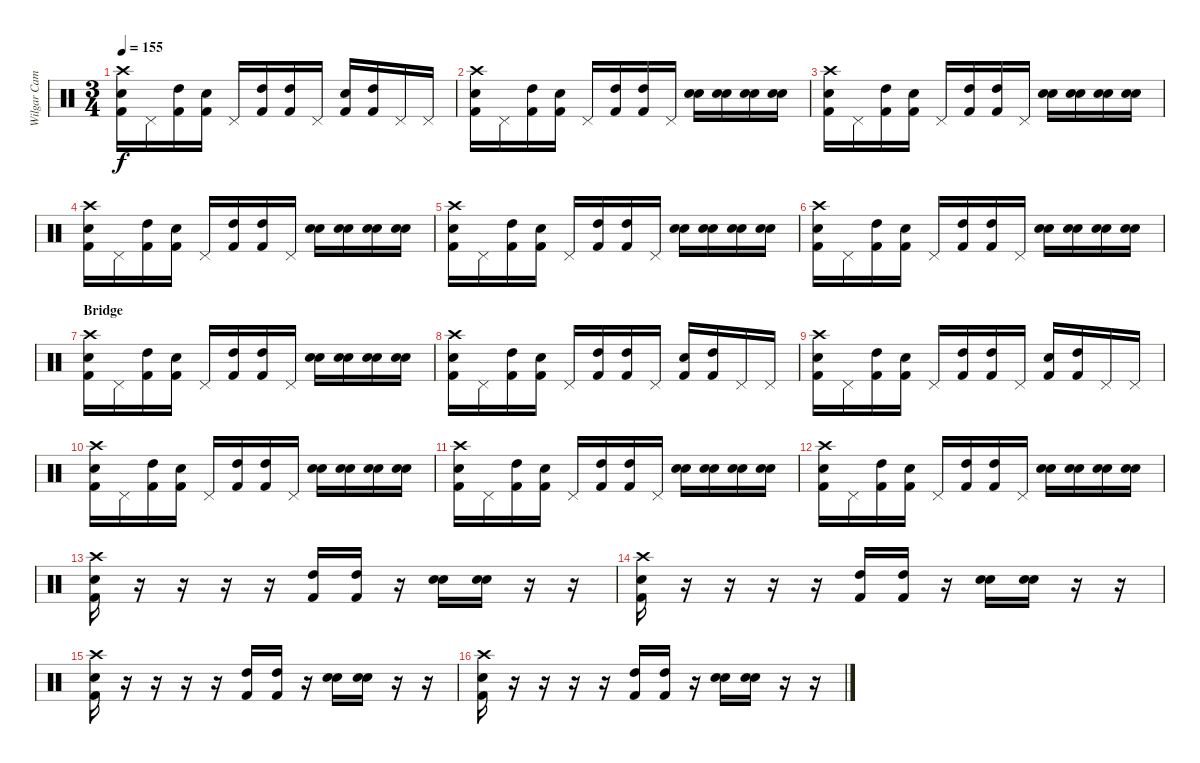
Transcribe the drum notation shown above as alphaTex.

\track ("Wilgar Campbell" "Wilgar Cam") {instrument percussion}
\staff {score}
\articulation defaults
\ts (3 4)
\tempo 155
\clef neutral
\ks c
("Kick (hit) 2" "Snare (hit) 2" "Crash high (hit)").16{dy f} "Pedal Hi-Hat (hit)".16 ("Kick (hit) 2" "High Tom (hit)").16 ("Kick (hit) 2" "Snare (hit) 2").16 "Pedal Hi-Hat (hit)".16 ("High Tom (hit)" "Kick (hit) 2").16 ("High Tom (hit)" "Kick (hit) 2").16 "Pedal Hi-Hat (hit)".16 ("Electric Snare (hit)" "Kick (hit) 2").16 ("High Tom (hit)" "Kick (hit) 2").16 "Pedal Hi-Hat (hit)".16 "Pedal Hi-Hat (hit)".16 |
("Kick (hit) 2" "Snare (hit) 2" "Crash high (hit)").16 "Pedal Hi-Hat (hit)".16 ("Kick (hit) 2" "High Tom (hit)").16 ("Kick (hit) 2" "Snare (hit) 2").16 "Pedal Hi-Hat (hit)".16 ("High Tom (hit)" "Kick (hit) 2").16 ("High Tom (hit)" "Kick (hit) 2").16 "Pedal Hi-Hat (hit)".16 ("Electric Snare (hit)" "Electric Snare (hit)").16 ("Electric Snare (hit)" "Electric Snare (hit)").16 ("Electric Snare (hit)" "Electric Snare (hit)").16 ("Electric Snare (hit)" "Electric Snare (hit)").16 |
("Kick (hit) 2" "Snare (hit) 2" "Crash high (hit)").16 "Pedal Hi-Hat (hit)".16 ("Kick (hit) 2" "High Tom (hit)").16 ("Kick (hit) 2" "Snare (hit) 2").16 "Pedal Hi-Hat (hit)".16 ("High Tom (hit)" "Kick (hit) 2").16 ("High Tom (hit)" "Kick (hit) 2").16 "Pedal Hi-Hat (hit)".16 ("Electric Snare (hit)" "Electric Snare (hit)").16 ("Electric Snare (hit)" "Electric Snare (hit)").16 ("Electric Snare (hit)" "Electric Snare (hit)").16 ("Electric Snare (hit)" "Electric Snare (hit)").16 |
("Kick (hit) 2" "Snare (hit) 2" "Crash high (hit)").16 "Pedal Hi-Hat (hit)".16 ("Kick (hit) 2" "High Tom (hit)").16 ("Kick (hit) 2" "Snare (hit) 2").16 "Pedal Hi-Hat (hit)".16 ("High Tom (hit)" "Kick (hit) 2").16 ("High Tom (hit)" "Kick (hit) 2").16 "Pedal Hi-Hat (hit)".16 ("Electric Snare (hit)" "Electric Snare (hit)").16 ("Electric Snare (hit)" "Electric Snare (hit)").16 ("Electric Snare (hit)" "Electric Snare (hit)").16 ("Electric Snare (hit)" "Electric Snare (hit)").16 |
("Kick (hit) 2" "Snare (hit) 2" "Crash high (hit)").16 "Pedal Hi-Hat (hit)".16 ("Kick (hit) 2" "High Tom (hit)").16 ("Kick (hit) 2" "Snare (hit) 2").16 "Pedal Hi-Hat (hit)".16 ("High Tom (hit)" "Kick (hit) 2").16 ("High Tom (hit)" "Kick (hit) 2").16 "Pedal Hi-Hat (hit)".16 ("Electric Snare (hit)" "Electric Snare (hit)").16 ("Electric Snare (hit)" "Electric Snare (hit)").16 ("Electric Snare (hit)" "Electric Snare (hit)").16 ("Electric Snare (hit)" "Electric Snare (hit)").16 |
("Kick (hit) 2" "Snare (hit) 2" "Crash high (hit)").16 "Pedal Hi-Hat (hit)".16 ("Kick (hit) 2" "High Tom (hit)").16 ("Kick (hit) 2" "Snare (hit) 2").16 "Pedal Hi-Hat (hit)".16 ("High Tom (hit)" "Kick (hit) 2").16 ("High Tom (hit)" "Kick (hit) 2").16 "Pedal Hi-Hat (hit)".16 ("Electric Snare (hit)" "Electric Snare (hit)").16 ("Electric Snare (hit)" "Electric Snare (hit)").16 ("Electric Snare (hit)" "Electric Snare (hit)").16 ("Electric Snare (hit)" "Electric Snare (hit)").16 |
\section ("" "Bridge")
("Kick (hit) 2" "Snare (hit) 2" "Crash high (hit)").16 "Pedal Hi-Hat (hit)".16 ("Kick (hit) 2" "High Tom (hit)").16 ("Kick (hit) 2" "Snare (hit) 2").16 "Pedal Hi-Hat (hit)".16 ("High Tom (hit)" "Kick (hit) 2").16 ("High Tom (hit)" "Kick (hit) 2").16 "Pedal Hi-Hat (hit)".16 ("Electric Snare (hit)" "Electric Snare (hit)").16 ("Electric Snare (hit)" "Electric Snare (hit)").16 ("Electric Snare (hit)" "Electric Snare (hit)").16 ("Electric Snare (hit)" "Electric Snare (hit)").16 |
("Kick (hit) 2" "Snare (hit) 2" "Crash high (hit)").16 "Pedal Hi-Hat (hit)".16 ("Kick (hit) 2" "High Tom (hit)").16 ("Kick (hit) 2" "Snare (hit) 2").16 "Pedal Hi-Hat (hit)".16 ("High Tom (hit)" "Kick (hit) 2").16 ("High Tom (hit)" "Kick (hit) 2").16 "Pedal Hi-Hat (hit)".16 ("Electric Snare (hit)" "Kick (hit) 2").16 ("High Tom (hit)" "Kick (hit) 2").16 "Pedal Hi-Hat (hit)".16 "Pedal Hi-Hat (hit)".16 |
("Kick (hit) 2" "Snare (hit) 2" "Crash high (hit)").16 "Pedal Hi-Hat (hit)".16 ("Kick (hit) 2" "High Tom (hit)").16 ("Kick (hit) 2" "Snare (hit) 2").16 "Pedal Hi-Hat (hit)".16 ("High Tom (hit)" "Kick (hit) 2").16 ("High Tom (hit)" "Kick (hit) 2").16 "Pedal Hi-Hat (hit)".16 ("Electric Snare (hit)" "Kick (hit) 2").16 ("High Tom (hit)" "Kick (hit) 2").16 "Pedal Hi-Hat (hit)".16 "Pedal Hi-Hat (hit)".16 |
("Kick (hit) 2" "Snare (hit) 2" "Crash high (hit)").16 "Pedal Hi-Hat (hit)".16 ("Kick (hit) 2" "High Tom (hit)").16 ("Kick (hit) 2" "Snare (hit) 2").16 "Pedal Hi-Hat (hit)".16 ("High Tom (hit)" "Kick (hit) 2").16 ("High Tom (hit)" "Kick (hit) 2").16 "Pedal Hi-Hat (hit)".16 ("Electric Snare (hit)" "Electric Snare (hit)").16 ("Electric Snare (hit)" "Electric Snare (hit)").16 ("Electric Snare (hit)" "Electric Snare (hit)").16 ("Electric Snare (hit)" "Electric Snare (hit)").16 |
("Kick (hit) 2" "Snare (hit) 2" "Crash high (hit)").16 "Pedal Hi-Hat (hit)".16 ("Kick (hit) 2" "High Tom (hit)").16 ("Kick (hit) 2" "Snare (hit) 2").16 "Pedal Hi-Hat (hit)".16 ("High Tom (hit)" "Kick (hit) 2").16 ("High Tom (hit)" "Kick (hit) 2").16 "Pedal Hi-Hat (hit)".16 ("Electric Snare (hit)" "Electric Snare (hit)").16 ("Electric Snare (hit)" "Electric Snare (hit)").16 ("Electric Snare (hit)" "Electric Snare (hit)").16 ("Electric Snare (hit)" "Electric Snare (hit)").16 |
("Kick (hit) 2" "Snare (hit) 2" "Crash high (hit)").16 "Pedal Hi-Hat (hit)".16 ("Kick (hit) 2" "High Tom (hit)").16 ("Kick (hit) 2" "Snare (hit) 2").16 "Pedal Hi-Hat (hit)".16 ("High Tom (hit)" "Kick (hit) 2").16 ("High Tom (hit)" "Kick (hit) 2").16 "Pedal Hi-Hat (hit)".16 ("Electric Snare (hit)" "Electric Snare (hit)").16 ("Electric Snare (hit)" "Electric Snare (hit)").16 ("Electric Snare (hit)" "Electric Snare (hit)").16 ("Electric Snare (hit)" "Electric Snare (hit)").16 |
("Kick (hit) 2" "Snare (hit) 2" "Crash high (hit)").16 r.16 r.16 r.16 r.16 ("High Tom (hit)" "Kick (hit) 2").16 ("High Tom (hit)" "Kick (hit) 2").16 r.16 ("Electric Snare (hit)" "Electric Snare (hit)").16 ("Electric Snare (hit)" "Electric Snare (hit)").16 r.16 r.16 |
("Kick (hit) 2" "Snare (hit) 2" "Crash high (hit)").16 r.16 r.16 r.16 r.16 ("High Tom (hit)" "Kick (hit) 2").16 ("High Tom (hit)" "Kick (hit) 2").16 r.16 ("Electric Snare (hit)" "Electric Snare (hit)").16 ("Electric Snare (hit)" "Electric Snare (hit)").16 r.16 r.16 |
("Kick (hit) 2" "Snare (hit) 2" "Crash high (hit)").16 r.16 r.16 r.16 r.16 ("High Tom (hit)" "Kick (hit) 2").16 ("High Tom (hit)" "Kick (hit) 2").16 r.16 ("Electric Snare (hit)" "Electric Snare (hit)").16 ("Electric Snare (hit)" "Electric Snare (hit)").16 r.16 r.16 |
("Kick (hit) 2" "Snare (hit) 2" "Crash high (hit)").16 r.16 r.16 r.16 r.16 ("High Tom (hit)" "Kick (hit) 2").16 ("High Tom (hit)" "Kick (hit) 2").16 r.16 ("Electric Snare (hit)" "Electric Snare (hit)").16 ("Electric Snare (hit)" "Electric Snare (hit)").16 r.16 r.16
